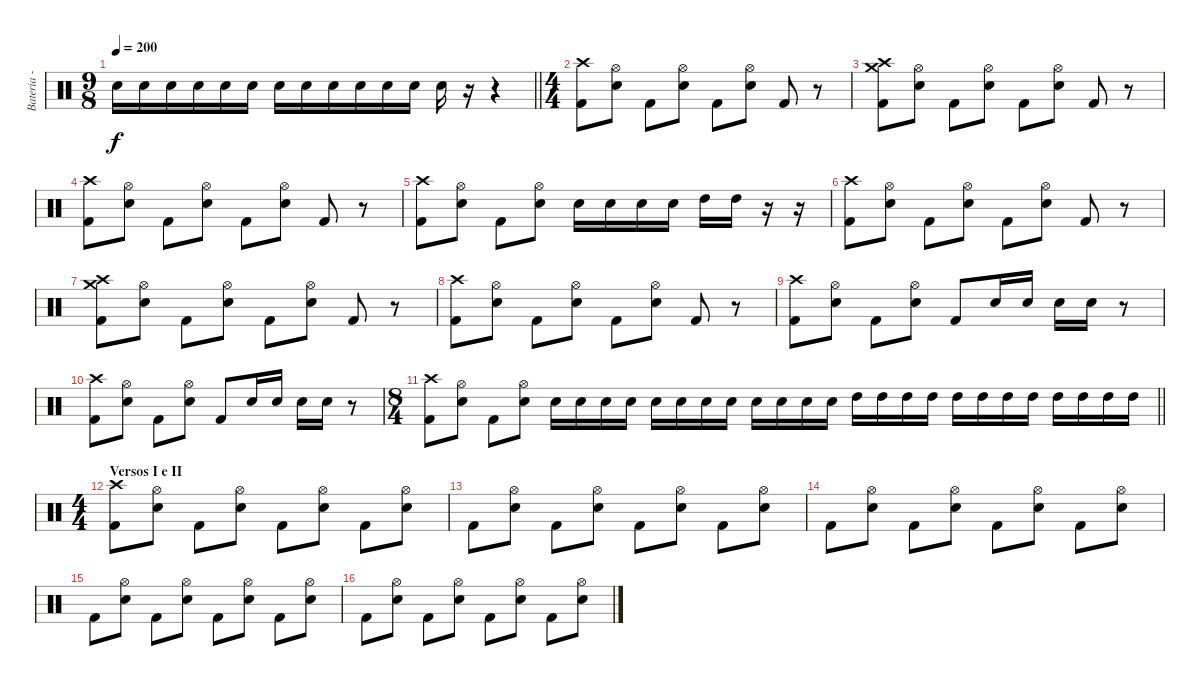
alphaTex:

\track ("Bateria - Larzon" "Bateria - ") {instrument percussion}
\staff {score}
\articulation defaults
\ts (9 8)
\tempo 200
\clef neutral
\barLineRight lightlight
\ks c "Electric Snare (hit)".16{dy f} "Electric Snare (hit)".16 "Electric Snare (hit)".16 "Electric Snare (hit)".16 "Electric Snare (hit)".16 "Electric Snare (hit)".16 "Electric Snare (hit)".16 "Electric Snare (hit)".16 "Electric Snare (hit)".16 "Electric Snare (hit)".16 "Electric Snare (hit)".16 "Electric Snare (hit)".16 "Electric Snare (hit)".16
r.16 r.4 |
\ts (4 4)
("Kick (hit) 2" "Crash high (hit)").8 ("Hi-Hat (open)" "Electric Snare (hit)").8 "Kick (hit) 2".8 ("Hi-Hat (open)" "Electric Snare (hit)").8 "Kick (hit) 2".8 ("Hi-Hat (open)" "Electric Snare (hit)").8 "Kick (hit) 2".8 r.8 |
("Kick (hit) 2" "Crash high (hit)" "Crash medium (hit)").8 ("Hi-Hat (open)" "Electric Snare (hit)").8 "Kick (hit) 2".8 ("Hi-Hat (open)" "Electric Snare (hit)").8 "Kick (hit) 2".8 ("Hi-Hat (open)" "Electric Snare (hit)").8 "Kick (hit) 2".8 r.8 |
("Kick (hit) 2" "Crash high (hit)").8 ("Hi-Hat (open)" "Electric Snare (hit)").8 "Kick (hit) 2".8 ("Hi-Hat (open)" "Electric Snare (hit)").8 "Kick (hit) 2".8 ("Hi-Hat (open)" "Electric Snare (hit)").8 "Kick (hit) 2".8 r.8 |
("Kick (hit) 2" "Crash high (hit)").8 ("Hi-Hat (open)" "Electric Snare (hit)").8 "Kick (hit) 2".8 ("Hi-Hat (open)" "Electric Snare (hit)").8 "Electric Snare (hit)".16 "Electric Snare (hit)".16 "Electric Snare (hit)".16 "Electric Snare (hit)".16 "High Tom (hit)".16 "High Tom (hit)".16 r.16 r.16 |
("Kick (hit) 2" "Crash high (hit)").8 ("Hi-Hat (open)" "Electric Snare (hit)").8 "Kick (hit) 2".8 ("Hi-Hat (open)" "Electric Snare (hit)").8 "Kick (hit) 2".8 ("Hi-Hat (open)" "Electric Snare (hit)").8 "Kick (hit) 2".8 r.8 |
("Kick (hit) 2" "Crash high (hit)" "Crash medium (hit)").8 ("Hi-Hat (open)" "Electric Snare (hit)").8 "Kick (hit) 2".8 ("Hi-Hat (open)" "Electric Snare (hit)").8 "Kick (hit) 2".8 ("Hi-Hat (open)" "Electric Snare (hit)").8 "Kick (hit) 2".8 r.8 |
("Kick (hit) 2" "Crash high (hit)").8 ("Hi-Hat (open)" "Electric Snare (hit)").8 "Kick (hit) 2".8 ("Hi-Hat (open)" "Electric Snare (hit)").8 "Kick (hit) 2".8 ("Hi-Hat (open)" "Electric Snare (hit)").8 "Kick (hit) 2".8 r.8 |
("Kick (hit) 2" "Crash high (hit)").8 ("Hi-Hat (open)" "Electric Snare (hit)").8 "Kick (hit) 2".8 ("Hi-Hat (open)" "Electric Snare (hit)").8 "Kick (hit) 2".8 "Electric Snare (hit)".16 "Electric Snare (hit)".16 "Electric Snare (hit)".16 "Electric Snare (hit)".16 r.8 |
("Kick (hit) 2" "Crash high (hit)").8 ("Hi-Hat (open)" "Electric Snare (hit)").8 "Kick (hit) 2".8 ("Hi-Hat (open)" "Electric Snare (hit)").8 "Kick (hit) 2".8 "Electric Snare (hit)".16 "Electric Snare (hit)".16 "Electric Snare (hit)".16 "Electric Snare (hit)".16 r.8 |
\ts (8 4)
\barLineRight lightlight
("Kick (hit) 2" "Crash high (hit)").8 ("Hi-Hat (open)" "Electric Snare (hit)").8 "Kick (hit) 2".8 ("Hi-Hat (open)" "Electric Snare (hit)").8 "Electric Snare (hit)".16 "Electric Snare (hit)".16 "Electric Snare (hit)".16 "Electric Snare (hit)".16 "Electric Snare (hit)".16 "Electric Snare (hit)".16 "Electric Snare (hit)".16 "Electric Snare (hit)".16 "Electric Snare (hit)".16 "Electric Snare (hit)".16 "Electric Snare (hit)".16 "Electric Snare (hit)".16 "High Tom (hit)".16 "High Tom (hit)".16 "High Tom (hit)".16 "High Tom (hit)".16 "High Tom (hit)".16 "High Tom (hit)".16 "High Tom (hit)".16 "High Tom (hit)".16 "High Tom (hit)".16 "High Tom (hit)".16 "High Tom (hit)".16 "High Tom (hit)".16 |
\ts (4 4)
\section ("" "Versos I e II")
("Kick (hit) 2" "Crash high (hit)").8 ("Electric Snare (hit)" "Hi-Hat (open)").8 "Kick (hit) 2".8 ("Electric Snare (hit)" "Hi-Hat (open)").8 "Kick (hit) 2".8 ("Electric Snare (hit)" "Hi-Hat (open)").8 "Kick (hit) 2".8 ("Electric Snare (hit)" "Hi-Hat (open)").8 |
"Kick (hit) 2".8 ("Hi-Hat (open)" "Electric Snare (hit)").8 "Kick (hit) 2".8 ("Hi-Hat (open)" "Electric Snare (hit)").8 "Kick (hit) 2".8 ("Hi-Hat (open)" "Electric Snare (hit)").8 "Kick (hit) 2".8 ("Hi-Hat (open)" "Electric Snare (hit)").8 |
"Kick (hit) 2".8 ("Hi-Hat (open)" "Electric Snare (hit)").8 "Kick (hit) 2".8 ("Hi-Hat (open)" "Electric Snare (hit)").8 "Kick (hit) 2".8 ("Hi-Hat (open)" "Electric Snare (hit)").8 "Kick (hit) 2".8 ("Hi-Hat (open)" "Electric Snare (hit)").8 |
"Kick (hit) 2".8 ("Hi-Hat (open)" "Electric Snare (hit)").8 "Kick (hit) 2".8 ("Hi-Hat (open)" "Electric Snare (hit)").8 "Kick (hit) 2".8 ("Hi-Hat (open)" "Electric Snare (hit)").8 "Kick (hit) 2".8 ("Hi-Hat (open)" "Electric Snare (hit)").8 |
"Kick (hit) 2".8 ("Hi-Hat (open)" "Electric Snare (hit)").8 "Kick (hit) 2".8 ("Hi-Hat (open)" "Electric Snare (hit)").8 "Kick (hit) 2".8 ("Hi-Hat (open)" "Electric Snare (hit)").8 "Kick (hit) 2".8 ("Hi-Hat (open)" "Electric Snare (hit)").8
